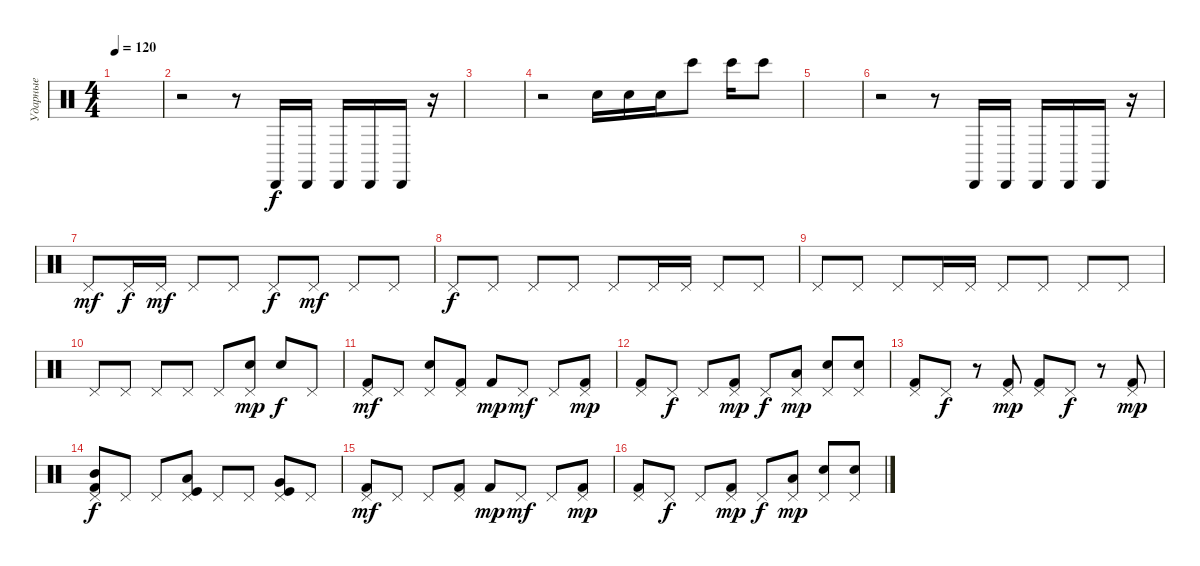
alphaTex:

\track ("Ударные" "Ударные") {instrument percussion}
\staff {score}
\articulation defaults
\ts (4 4)
\tempo 120
\clef neutral
\ks c
|
r.2 r.8 "Cabasa (hit)".16 "Cabasa (hit)".16 "Cabasa (hit)".16 "Cabasa (hit)".16 "Cabasa (hit)".16 r.16 |
|
r.2 "Hand Clap (hit)".16 "Hand Clap (hit)".16 "Hand Clap (hit)".16 "Bongo High (hit)".8 "Bongo High (hit)".16 "Bongo High (hit)".8 |
|
r.2 r.8 "Cabasa (hit)".16 "Cabasa (hit)".16 "Cabasa (hit)".16 "Cabasa (hit)".16 "Cabasa (hit)".16 r.16 |
"Pedal Hi-Hat (hit)".8{dy mf} "Pedal Hi-Hat (hit)".16{dy f} "Pedal Hi-Hat (hit)".16{dy mf} "Pedal Hi-Hat (hit)".8 "Pedal Hi-Hat (hit)".8 "Pedal Hi-Hat (hit)".8{dy f} "Pedal Hi-Hat (hit)".8{dy mf} "Pedal Hi-Hat (hit)".8 "Pedal Hi-Hat (hit)".8 |
"Pedal Hi-Hat (hit)".8{dy f} "Pedal Hi-Hat (hit)".8 "Pedal Hi-Hat (hit)".8 "Pedal Hi-Hat (hit)".8 "Pedal Hi-Hat (hit)".8 "Pedal Hi-Hat (hit)".16 "Pedal Hi-Hat (hit)".16 "Pedal Hi-Hat (hit)".8 "Pedal Hi-Hat (hit)".8 |
"Pedal Hi-Hat (hit)".8 "Pedal Hi-Hat (hit)".8 "Pedal Hi-Hat (hit)".8 "Pedal Hi-Hat (hit)".16 "Pedal Hi-Hat (hit)".16 "Pedal Hi-Hat (hit)".8 "Pedal Hi-Hat (hit)".8 "Pedal Hi-Hat (hit)".8 "Pedal Hi-Hat (hit)".8 |
"Pedal Hi-Hat (hit)".8 "Pedal Hi-Hat (hit)".8 "Pedal Hi-Hat (hit)".8 "Pedal Hi-Hat (hit)".8 "Pedal Hi-Hat (hit)".8 ("Pedal Hi-Hat (hit)" "Snare (hit) 2").8{dy mp} "Electric Snare (hit)".8{dy f} "Pedal Hi-Hat (hit)".8 |
("Pedal Hi-Hat (hit)" "Kick (hit) 2").8{dy mf} "Pedal Hi-Hat (hit)".8 ("Pedal Hi-Hat (hit)" "Electric Snare (hit)").8 ("Pedal Hi-Hat (hit)" "Kick (hit) 2").8 "Kick (hit) 2".8{dy mp} "Pedal Hi-Hat (hit)".8{dy mf} "Pedal Hi-Hat (hit)".8 ("Pedal Hi-Hat (hit)" "Kick (hit) 2").8{dy mp} |
("Pedal Hi-Hat (hit)" "Kick (hit) 2").8 "Pedal Hi-Hat (hit)".8{dy f} "Pedal Hi-Hat (hit)".8 ("Pedal Hi-Hat (hit)" "Kick (hit) 2").8{dy mp} "Pedal Hi-Hat (hit)".8{dy f} ("Pedal Hi-Hat (hit)" "Low Floor Tom (hit)").8{dy mp} ("Pedal Hi-Hat (hit)" "Snare (hit) 2").8 ("Pedal Hi-Hat (hit)" "Snare (hit) 2").8 |
("Pedal Hi-Hat (hit)" "Kick (hit) 2").8 "Pedal Hi-Hat (hit)".8{dy f} r.8 ("Pedal Hi-Hat (hit)" "Kick (hit) 2").8{dy mp} ("Pedal Hi-Hat (hit)" "Kick (hit) 2").8 "Pedal Hi-Hat (hit)".8{dy f} r.8 ("Pedal Hi-Hat (hit)" "Kick (hit) 2").8{dy mp} |
("Pedal Hi-Hat (hit)" "Mid Tom (hit)" "Kick (hit) 2").8{dy f} "Pedal Hi-Hat (hit)".8 "Pedal Hi-Hat (hit)".8 ("Pedal Hi-Hat (hit)" "Low Tom (hit)" "Kick (hit)").8 "Pedal Hi-Hat (hit)".8 "Pedal Hi-Hat (hit)".8 ("Pedal Hi-Hat (hit)" "Very Low Tom (hit)" "Kick (hit)").8 "Pedal Hi-Hat (hit)".8 |
("Pedal Hi-Hat (hit)" "Kick (hit) 2").8{dy mf} "Pedal Hi-Hat (hit)".8 "Pedal Hi-Hat (hit)".8 ("Pedal Hi-Hat (hit)" "Kick (hit) 2").8 "Kick (hit) 2".8{dy mp} "Pedal Hi-Hat (hit)".8{dy mf} "Pedal Hi-Hat (hit)".8 ("Pedal Hi-Hat (hit)" "Kick (hit) 2").8{dy mp} |
("Pedal Hi-Hat (hit)" "Kick (hit) 2").8 "Pedal Hi-Hat (hit)".8{dy f} "Pedal Hi-Hat (hit)".8 ("Pedal Hi-Hat (hit)" "Kick (hit) 2").8{dy mp} "Pedal Hi-Hat (hit)".8{dy f} ("Pedal Hi-Hat (hit)" "Low Floor Tom (hit)").8{dy mp} ("Pedal Hi-Hat (hit)" "Snare (hit) 2").8 ("Pedal Hi-Hat (hit)" "Snare (hit) 2").8
